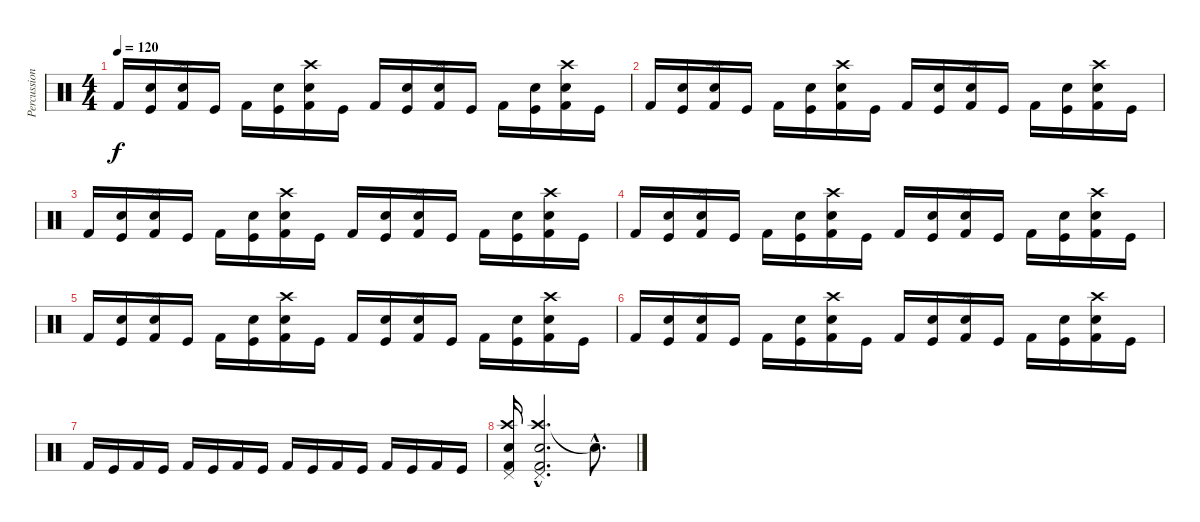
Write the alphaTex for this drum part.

\track ("Percussion" "Percussion") {instrument percussion}
\staff {score}
\articulation defaults
\ts (4 4)
\tempo 120
\clef neutral
\ks c "Kick (hit) 2".16{dy f}
("Electric Snare (hit)" "Kick (hit)").16 ("Splash (hit)" "Snare (hit) 2" "Kick (hit) 2").16 "Kick (hit)".16 "Kick (hit) 2".16 ("Electric Snare (hit)" "Kick (hit)").16 ("Crash high (hit)" "Snare (hit) 2" "Kick (hit) 2").16 "Kick (hit)".16 "Kick (hit) 2".16 ("Electric Snare (hit)" "Kick (hit)").16 ("Splash (hit)" "Snare (hit) 2" "Kick (hit) 2").16 "Kick (hit)".16 "Kick (hit) 2".16 ("Electric Snare (hit)" "Kick (hit)").16 ("Crash high (hit)" "Snare (hit) 2" "Kick (hit) 2").16 "Kick (hit)".16 |
"Kick (hit) 2".16 ("Electric Snare (hit)" "Kick (hit)").16 ("Splash (hit)" "Snare (hit) 2" "Kick (hit) 2").16 "Kick (hit)".16 "Kick (hit) 2".16 ("Electric Snare (hit)" "Kick (hit)").16 ("Crash high (hit)" "Snare (hit) 2" "Kick (hit) 2").16 "Kick (hit)".16 "Kick (hit) 2".16 ("Electric Snare (hit)" "Kick (hit)").16 ("Splash (hit)" "Snare (hit) 2" "Kick (hit) 2").16 "Kick (hit)".16 "Kick (hit) 2".16 ("Electric Snare (hit)" "Kick (hit)").16 ("Crash high (hit)" "Snare (hit) 2" "Kick (hit) 2").16 "Kick (hit)".16 |
"Kick (hit) 2".16 ("Electric Snare (hit)" "Kick (hit)").16 ("Splash (hit)" "Snare (hit) 2" "Kick (hit) 2").16 "Kick (hit)".16 "Kick (hit) 2".16 ("Electric Snare (hit)" "Kick (hit)").16 ("Crash high (hit)" "Snare (hit) 2" "Kick (hit) 2").16 "Kick (hit)".16 "Kick (hit) 2".16 ("Electric Snare (hit)" "Kick (hit)").16 ("Splash (hit)" "Snare (hit) 2" "Kick (hit) 2").16 "Kick (hit)".16 "Kick (hit) 2".16 ("Electric Snare (hit)" "Kick (hit)").16 ("Crash high (hit)" "Snare (hit) 2" "Kick (hit) 2").16 "Kick (hit)".16 |
"Kick (hit) 2".16 ("Electric Snare (hit)" "Kick (hit)").16 ("Splash (hit)" "Snare (hit) 2" "Kick (hit) 2").16 "Kick (hit)".16 "Kick (hit) 2".16 ("Electric Snare (hit)" "Kick (hit)").16 ("Crash high (hit)" "Snare (hit) 2" "Kick (hit) 2").16 "Kick (hit)".16 "Kick (hit) 2".16 ("Electric Snare (hit)" "Kick (hit)").16 ("Splash (hit)" "Snare (hit) 2" "Kick (hit) 2").16 "Kick (hit)".16 "Kick (hit) 2".16 ("Electric Snare (hit)" "Kick (hit)").16 ("Crash high (hit)" "Snare (hit) 2" "Kick (hit) 2").16 "Kick (hit)".16 |
"Kick (hit) 2".16 ("Electric Snare (hit)" "Kick (hit)").16 ("Splash (hit)" "Snare (hit) 2" "Kick (hit) 2").16 "Kick (hit)".16 "Kick (hit) 2".16 ("Electric Snare (hit)" "Kick (hit)").16 ("Crash high (hit)" "Snare (hit) 2" "Kick (hit) 2").16 "Kick (hit)".16 "Kick (hit) 2".16 ("Electric Snare (hit)" "Kick (hit)").16 ("Splash (hit)" "Snare (hit) 2" "Kick (hit) 2").16 "Kick (hit)".16 "Kick (hit) 2".16 ("Electric Snare (hit)" "Kick (hit)").16 ("Crash high (hit)" "Snare (hit) 2" "Kick (hit) 2").16 "Kick (hit)".16 |
"Kick (hit) 2".16 ("Electric Snare (hit)" "Kick (hit)").16 ("Splash (hit)" "Snare (hit) 2" "Kick (hit) 2").16 "Kick (hit)".16 "Kick (hit) 2".16 ("Electric Snare (hit)" "Kick (hit)").16 ("Crash high (hit)" "Snare (hit) 2" "Kick (hit) 2").16 "Kick (hit)".16 "Kick (hit) 2".16 ("Electric Snare (hit)" "Kick (hit)").16 ("Splash (hit)" "Snare (hit) 2" "Kick (hit) 2").16 "Kick (hit)".16 "Kick (hit) 2".16 ("Electric Snare (hit)" "Kick (hit)").16 ("Crash high (hit)" "Snare (hit) 2" "Kick (hit) 2").16 "Kick (hit)".16 |
"Kick (hit) 2".16 "Kick (hit)".16 "Kick (hit) 2".16 "Kick (hit)".16 "Kick (hit) 2".16 "Kick (hit)".16 "Kick (hit) 2".16 "Kick (hit)".16 "Kick (hit) 2".16 "Kick (hit)".16 "Kick (hit) 2".16 "Kick (hit)".16 "Kick (hit) 2".16 "Kick (hit)".16 "Kick (hit) 2".16 "Kick (hit)".16 |
("Crash high (hit)" "Pedal Hi-Hat (hit)" "Electric Snare (hit)" "Kick (hit) 2").16 ("Crash high (hit)"{hac} "Pedal Hi-Hat (hit)" "Electric Snare (hit)" "Kick (hit) 2").2{d} "Snare (hit)"{hac t}.8{d}
